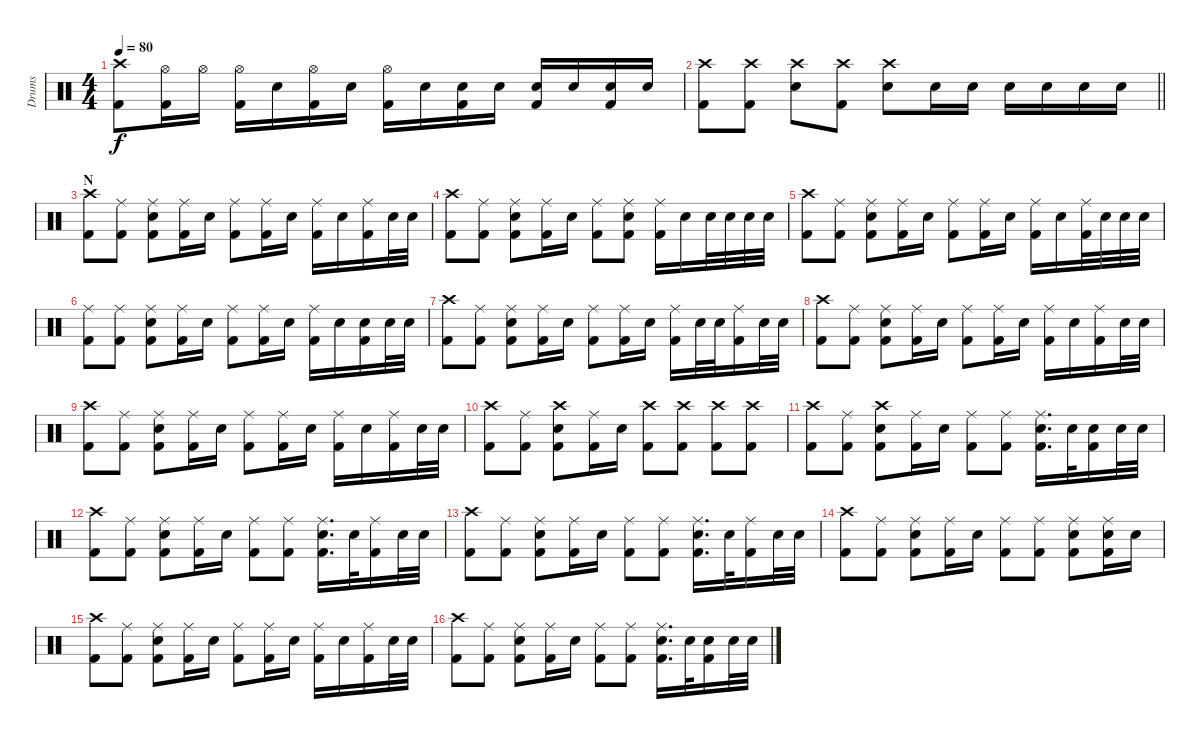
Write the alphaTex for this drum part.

\track ("Drums" "Drums") {instrument percussion}
\staff {score}
\articulation defaults
\ts (4 4)
\tempo 80
\clef neutral
\ks c
("Crash high (hit)" "Kick (hit) 2").8{dy f} ("Hi-Hat (open)" "Kick (hit) 2").16 "Hi-Hat (open)".16 ("Hi-Hat (open)" "Kick (hit) 2").16 "Snare (hit) 2".16 ("Hi-Hat (open)" "Kick (hit) 2").16 "Snare (hit) 2".16 ("Hi-Hat (open)" "Kick (hit) 2").16 "Snare (hit) 2".16 ("Snare (hit) 2" "Kick (hit) 2").16 "Snare (hit) 2".16 ("Snare (hit) 2" "Kick (hit) 2").16 "Snare (hit) 2".16 ("Snare (hit) 2" "Kick (hit) 2").16 "Snare (hit) 2".16 |
\barLineRight lightlight
("Crash high (hit)" "Kick (hit) 2").8 ("Crash high (hit)" "Kick (hit) 2").8 ("Crash high (hit)" "Snare (hit) 2").8 ("Crash high (hit)" "Kick (hit) 2").8 ("Crash high (hit)" "Snare (hit) 2").8 "Snare (hit) 2".16 "Snare (hit) 2".16 "Snare (hit) 2".16 "Snare (hit) 2".16 "Snare (hit) 2".16 "Snare (hit) 2".16 |
\section ("" "N")
("Crash high (hit)" "Kick (hit) 2").8 ("Ride (middle)" "Kick (hit) 2").8 ("Ride (middle)" "Snare (hit) 2" "Kick (hit) 2").8 ("Ride (middle)" "Kick (hit) 2").16 "Snare (hit) 2".16 ("Ride (middle)" "Kick (hit) 2").8 ("Ride (middle)" "Kick (hit) 2").16 "Snare (hit) 2".16 ("Ride (middle)" "Kick (hit) 2").16 "Snare (hit) 2".16 ("Ride (middle)" "Kick (hit) 2").16 "Snare (hit) 2".32 "Snare (hit) 2".32 |
("Crash high (hit)" "Kick (hit) 2").8 ("Ride (middle)" "Kick (hit) 2").8 ("Ride (middle)" "Snare (hit) 2" "Kick (hit) 2").8 ("Ride (middle)" "Kick (hit) 2").16 "Snare (hit) 2".16 ("Ride (middle)" "Kick (hit) 2").8 ("Ride (middle)" "Snare (hit) 2" "Kick (hit) 2").8 ("Ride (middle)" "Kick (hit) 2").16 "Snare (hit) 2".16 "Snare (hit) 2".32 "Snare (hit) 2".32 "Snare (hit) 2".32 "Snare (hit) 2".32 |
("Crash high (hit)" "Kick (hit) 2").8 ("Ride (middle)" "Kick (hit) 2").8 ("Ride (middle)" "Snare (hit) 2" "Kick (hit) 2").8 ("Ride (middle)" "Kick (hit) 2").16 "Snare (hit) 2".16 ("Ride (middle)" "Kick (hit) 2").8 ("Ride (middle)" "Kick (hit) 2").16 "Snare (hit) 2".16 ("Ride (middle)" "Kick (hit) 2").16 "Snare (hit) 2".16 ("Ride (middle)" "Kick (hit) 2").32 "Snare (hit) 2".32 "Snare (hit) 2".32 "Snare (hit) 2".32 |
("Ride (middle)" "Kick (hit) 2").8 ("Ride (middle)" "Kick (hit) 2").8 ("Ride (middle)" "Snare (hit) 2" "Kick (hit) 2").8 ("Ride (middle)" "Kick (hit) 2").16 "Snare (hit) 2".16 ("Ride (middle)" "Kick (hit) 2").8 ("Ride (middle)" "Kick (hit) 2").16 "Snare (hit) 2".16 ("Ride (middle)" "Kick (hit) 2").16 "Snare (hit) 2".16 ("Snare (hit) 2" "Kick (hit) 2").16 "Snare (hit) 2".32 "Snare (hit) 2".32 |
("Crash high (hit)" "Kick (hit) 2").8 ("Ride (middle)" "Kick (hit) 2").8 ("Ride (middle)" "Snare (hit) 2" "Kick (hit) 2").8 ("Ride (middle)" "Kick (hit) 2").16 "Snare (hit) 2".16 ("Ride (middle)" "Kick (hit) 2").8 ("Ride (middle)" "Kick (hit) 2").16 "Snare (hit) 2".16 ("Ride (middle)" "Kick (hit) 2").16 "Snare (hit) 2".32 "Snare (hit) 2".32 ("Ride (middle)" "Kick (hit) 2").16 "Snare (hit) 2".32 "Snare (hit) 2".32 |
("Crash high (hit)" "Kick (hit) 2").8 ("Ride (middle)" "Kick (hit) 2").8 ("Ride (middle)" "Snare (hit) 2" "Kick (hit) 2").8 ("Ride (middle)" "Kick (hit) 2").16 "Snare (hit) 2".16 ("Ride (middle)" "Kick (hit) 2").8 ("Ride (middle)" "Kick (hit) 2").16 "Snare (hit) 2".16 ("Ride (middle)" "Kick (hit) 2").16 "Snare (hit) 2".16 ("Ride (middle)" "Kick (hit) 2").16 "Snare (hit) 2".32 "Snare (hit) 2".32 |
("Crash high (hit)" "Kick (hit) 2").8 ("Ride (middle)" "Kick (hit) 2").8 ("Ride (middle)" "Snare (hit) 2" "Kick (hit) 2").8 ("Ride (middle)" "Kick (hit) 2").16 "Snare (hit) 2".16 ("Ride (middle)" "Kick (hit) 2").8 ("Ride (middle)" "Kick (hit) 2").16 "Snare (hit) 2".16 ("Ride (middle)" "Kick (hit) 2").16 "Snare (hit) 2".16 ("Ride (middle)" "Kick (hit) 2").16 "Snare (hit) 2".32 "Snare (hit) 2".32 |
("Crash high (hit)" "Kick (hit) 2").8 ("Ride (middle)" "Kick (hit) 2").8 ("Crash high (hit)" "Snare (hit) 2" "Kick (hit) 2").8 ("Ride (middle)" "Kick (hit) 2").16 "Snare (hit) 2".16 ("Crash high (hit)" "Kick (hit) 2").8 ("Crash high (hit)" "Kick (hit) 2").8 ("Crash high (hit)" "Kick (hit) 2").8 ("Crash high (hit)" "Kick (hit) 2").8 |
("Crash high (hit)" "Kick (hit) 2").8 ("Ride (middle)" "Kick (hit) 2").8 ("Crash high (hit)" "Snare (hit) 2" "Kick (hit) 2").8 ("Ride (middle)" "Kick (hit) 2").16 "Snare (hit) 2".16 ("Ride (middle)" "Kick (hit) 2").8 ("Ride (middle)" "Kick (hit) 2").8 ("Ride (middle)" "Snare (hit) 2" "Kick (hit) 2").16{d} "Snare (hit) 2".32 ("Snare (hit) 2" "Kick (hit) 2").16 "Snare (hit) 2".32 "Snare (hit) 2".32 |
("Crash high (hit)" "Kick (hit) 2").8 ("Ride (middle)" "Kick (hit) 2").8 ("Ride (middle)" "Snare (hit) 2" "Kick (hit) 2").8 ("Ride (middle)" "Kick (hit) 2").16 "Snare (hit) 2".16 ("Ride (middle)" "Kick (hit) 2").8 ("Ride (middle)" "Kick (hit) 2").8 ("Ride (middle)" "Snare (hit) 2" "Kick (hit) 2").16{d} "Snare (hit) 2".32 ("Ride (middle)" "Kick (hit) 2").16 "Snare (hit) 2".32 "Snare (hit) 2".32 |
("Crash high (hit)" "Kick (hit) 2").8 ("Ride (middle)" "Kick (hit) 2").8 ("Ride (middle)" "Snare (hit) 2" "Kick (hit) 2").8 ("Ride (middle)" "Kick (hit) 2").16 "Snare (hit) 2".16 ("Ride (middle)" "Kick (hit) 2").8 ("Ride (middle)" "Kick (hit) 2").8 ("Ride (middle)" "Snare (hit) 2" "Kick (hit) 2").16{d} "Snare (hit) 2".32 ("Ride (middle)" "Kick (hit) 2").16 "Snare (hit) 2".32 "Snare (hit) 2".32 |
("Crash high (hit)" "Kick (hit) 2").8 ("Ride (middle)" "Kick (hit) 2").8 ("Ride (middle)" "Snare (hit) 2" "Kick (hit) 2").8 ("Ride (middle)" "Kick (hit) 2").16 "Snare (hit) 2".16 ("Ride (middle)" "Kick (hit) 2").8 ("Ride (middle)" "Kick (hit) 2").8 ("Ride (middle)" "Snare (hit) 2" "Kick (hit) 2").8 ("Ride (middle)" "Snare (hit) 2" "Kick (hit) 2").16 "Snare (hit) 2".16 |
("Crash high (hit)" "Kick (hit) 2").8 ("Ride (middle)" "Kick (hit) 2").8 ("Ride (middle)" "Snare (hit) 2" "Kick (hit) 2").8 ("Ride (middle)" "Kick (hit) 2").16 "Snare (hit) 2".16 ("Ride (middle)" "Kick (hit) 2").8 ("Ride (middle)" "Kick (hit) 2").16 "Snare (hit) 2".16 ("Ride (middle)" "Kick (hit) 2").16 "Snare (hit) 2".16 ("Ride (middle)" "Kick (hit) 2").16 "Snare (hit) 2".32 "Snare (hit) 2".32 |
("Crash high (hit)" "Kick (hit) 2").8 ("Ride (middle)" "Kick (hit) 2").8 ("Ride (middle)" "Snare (hit) 2" "Kick (hit) 2").8 ("Ride (middle)" "Kick (hit) 2").16 "Snare (hit) 2".16 ("Ride (middle)" "Kick (hit) 2").8 ("Ride (middle)" "Kick (hit) 2").8 ("Ride (middle)" "Snare (hit) 2" "Kick (hit) 2").16{d} "Snare (hit) 2".32 ("Snare (hit) 2" "Kick (hit) 2").16 "Snare (hit) 2".32 "Snare (hit) 2".32
